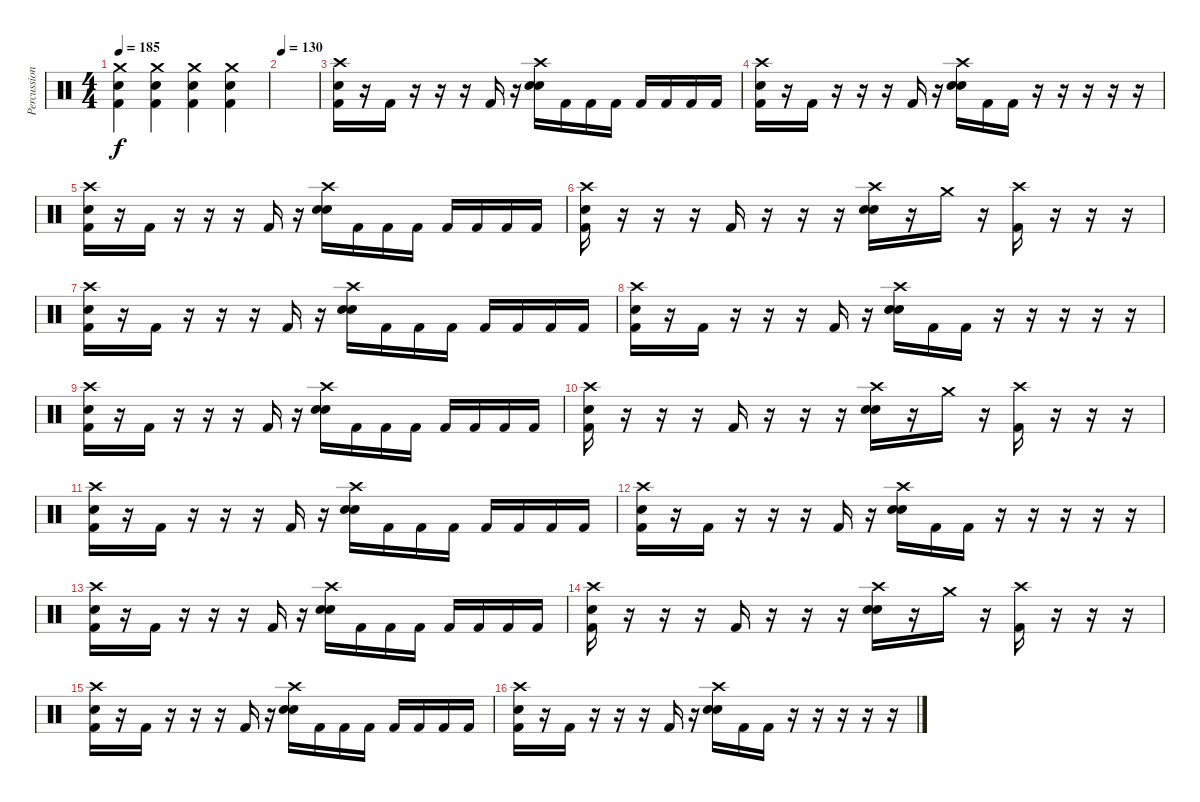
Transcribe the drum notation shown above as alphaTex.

\track ("Percussion" "Percussion") {instrument percussion}
\staff {score}
\articulation defaults
\ts (4 4)
\tempo 185
\clef neutral
\ks c
("Crash medium (hit)" "Snare (hit) 2" "Kick (hit) 2").4{dy f} ("Crash medium (hit)" "Snare (hit) 2" "Kick (hit) 2").4 ("Crash medium (hit)" "Snare (hit) 2" "Kick (hit) 2").4 ("Crash medium (hit)" "Snare (hit) 2" "Kick (hit) 2").4 |
\tempo 130
|
("Crash high (hit)" "Snare (hit) 2" "Kick (hit) 2").16 r.16 "Kick (hit) 2".16 r.16 r.16 r.16 "Kick (hit) 2".16 r.16 ("Crash high (hit)" "Snare (hit) 2" "Snare (hit) 2").16 "Kick (hit) 2".16 "Kick (hit) 2".16 "Kick (hit) 2".16 "Kick (hit) 2".16 "Kick (hit) 2".16 "Kick (hit) 2".16 "Kick (hit) 2".16 |
("Crash high (hit)" "Snare (hit) 2" "Kick (hit) 2").16 r.16 "Kick (hit) 2".16 r.16 r.16 r.16 "Kick (hit) 2".16 r.16 ("Crash high (hit)" "Snare (hit) 2" "Snare (hit) 2").16 "Kick (hit) 2".16 "Kick (hit) 2".16 r.16 r.16 r.16 r.16 r.16 |
("Crash high (hit)" "Snare (hit) 2" "Kick (hit) 2").16 r.16 "Kick (hit) 2".16 r.16 r.16 r.16 "Kick (hit) 2".16 r.16 ("Crash high (hit)" "Snare (hit) 2" "Snare (hit) 2").16 "Kick (hit) 2".16 "Kick (hit) 2".16 "Kick (hit) 2".16 "Kick (hit) 2".16 "Kick (hit) 2".16 "Kick (hit) 2".16 "Kick (hit) 2".16 |
("Crash high (hit)" "Snare (hit) 2" "Kick (hit) 2").16 r.16 r.16 r.16 "Kick (hit) 2".16 r.16 r.16 r.16 ("Crash high (hit)" "Snare (hit) 2" "Snare (hit) 2").16 r.16 "Crash medium (hit)".16 r.16 ("Crash high (hit)" "Kick (hit) 2").16 r.16 r.16 r.16 |
("Crash high (hit)" "Snare (hit) 2" "Kick (hit) 2").16 r.16 "Kick (hit) 2".16 r.16 r.16 r.16 "Kick (hit) 2".16 r.16 ("Crash high (hit)" "Snare (hit) 2" "Snare (hit) 2").16 "Kick (hit) 2".16 "Kick (hit) 2".16 "Kick (hit) 2".16 "Kick (hit) 2".16 "Kick (hit) 2".16 "Kick (hit) 2".16 "Kick (hit) 2".16 |
("Crash high (hit)" "Snare (hit) 2" "Kick (hit) 2").16 r.16 "Kick (hit) 2".16 r.16 r.16 r.16 "Kick (hit) 2".16 r.16 ("Crash high (hit)" "Snare (hit) 2" "Snare (hit) 2").16 "Kick (hit) 2".16 "Kick (hit) 2".16 r.16 r.16 r.16 r.16 r.16 |
("Crash high (hit)" "Snare (hit) 2" "Kick (hit) 2").16 r.16 "Kick (hit) 2".16 r.16 r.16 r.16 "Kick (hit) 2".16 r.16 ("Crash high (hit)" "Snare (hit) 2" "Snare (hit) 2").16 "Kick (hit) 2".16 "Kick (hit) 2".16 "Kick (hit) 2".16 "Kick (hit) 2".16 "Kick (hit) 2".16 "Kick (hit) 2".16 "Kick (hit) 2".16 |
("Crash high (hit)" "Snare (hit) 2" "Kick (hit) 2").16 r.16 r.16 r.16 "Kick (hit) 2".16 r.16 r.16 r.16 ("Crash high (hit)" "Snare (hit) 2" "Snare (hit) 2").16 r.16 "Crash medium (hit)".16 r.16 ("Crash high (hit)" "Kick (hit) 2").16 r.16 r.16 r.16 |
("Crash high (hit)" "Snare (hit) 2" "Kick (hit) 2").16 r.16 "Kick (hit) 2".16 r.16 r.16 r.16 "Kick (hit) 2".16 r.16 ("Crash high (hit)" "Snare (hit) 2" "Snare (hit) 2").16 "Kick (hit) 2".16 "Kick (hit) 2".16 "Kick (hit) 2".16 "Kick (hit) 2".16 "Kick (hit) 2".16 "Kick (hit) 2".16 "Kick (hit) 2".16 |
("Crash high (hit)" "Snare (hit) 2" "Kick (hit) 2").16 r.16 "Kick (hit) 2".16 r.16 r.16 r.16 "Kick (hit) 2".16 r.16 ("Crash high (hit)" "Snare (hit) 2" "Snare (hit) 2").16 "Kick (hit) 2".16 "Kick (hit) 2".16 r.16 r.16 r.16 r.16 r.16 |
("Crash high (hit)" "Snare (hit) 2" "Kick (hit) 2").16 r.16 "Kick (hit) 2".16 r.16 r.16 r.16 "Kick (hit) 2".16 r.16 ("Crash high (hit)" "Snare (hit) 2" "Snare (hit) 2").16 "Kick (hit) 2".16 "Kick (hit) 2".16 "Kick (hit) 2".16 "Kick (hit) 2".16 "Kick (hit) 2".16 "Kick (hit) 2".16 "Kick (hit) 2".16 |
("Crash high (hit)" "Snare (hit) 2" "Kick (hit) 2").16 r.16 r.16 r.16 "Kick (hit) 2".16 r.16 r.16 r.16 ("Crash high (hit)" "Snare (hit) 2" "Snare (hit) 2").16 r.16 "Crash medium (hit)".16 r.16 ("Crash high (hit)" "Kick (hit) 2").16 r.16 r.16 r.16 |
("Crash high (hit)" "Snare (hit) 2" "Kick (hit) 2").16 r.16 "Kick (hit) 2".16 r.16 r.16 r.16 "Kick (hit) 2".16 r.16 ("Crash high (hit)" "Snare (hit) 2" "Snare (hit) 2").16 "Kick (hit) 2".16 "Kick (hit) 2".16 "Kick (hit) 2".16 "Kick (hit) 2".16 "Kick (hit) 2".16 "Kick (hit) 2".16 "Kick (hit) 2".16 |
("Crash high (hit)" "Snare (hit) 2" "Kick (hit) 2").16 r.16 "Kick (hit) 2".16 r.16 r.16 r.16 "Kick (hit) 2".16 r.16 ("Crash high (hit)" "Snare (hit) 2" "Snare (hit) 2").16 "Kick (hit) 2".16 "Kick (hit) 2".16 r.16 r.16 r.16 r.16 r.16
